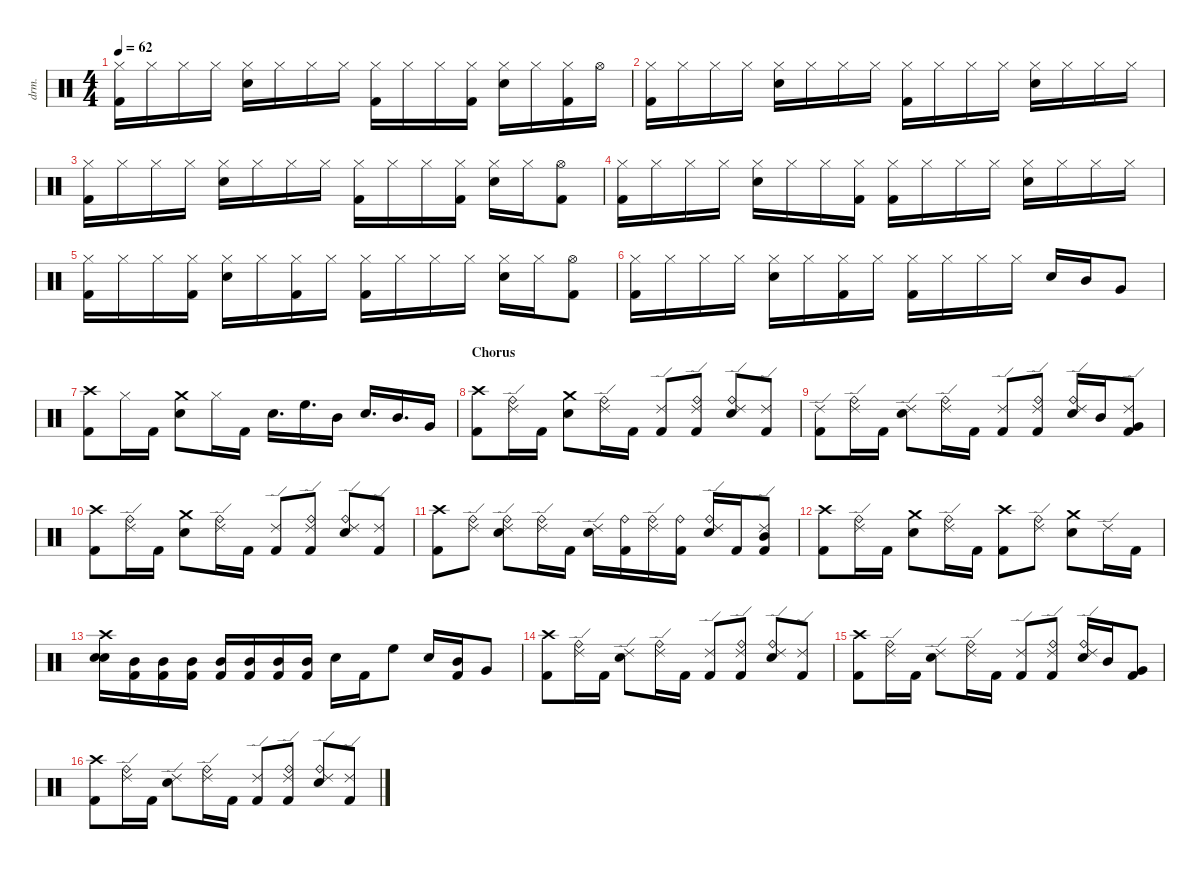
\defaultSystemsLayout 4
\hideDynamics
\bracketExtendMode nobrackets
\otherSystemsTrackNameOrientation horizontal
\track ("Drums" "drm.") {instrument percussion}
\staff {score}
\articulation defaults
\ts (4 4)
\tempo 62
\clef neutral
\ks c
("Kick (hit) 2" "Hi-Hat (closed)").16{dy ff} "Hi-Hat (closed)".16 "Hi-Hat (closed)".16 "Hi-Hat (closed)".16 ("Snare (hit) 2" "Hi-Hat (closed)").16 "Hi-Hat (closed)".16 "Hi-Hat (closed)".16 "Hi-Hat (closed)".16 ("Kick (hit) 2" "Hi-Hat (closed)").16 "Hi-Hat (closed)".16 "Hi-Hat (closed)".16 ("Kick (hit) 2" "Hi-Hat (closed)").16 ("Snare (hit) 2" "Hi-Hat (closed)").16 "Hi-Hat (closed)".16 ("Kick (hit) 2" "Hi-Hat (closed)").16 "Hi-Hat (open)".16 |
("Kick (hit) 2" "Hi-Hat (closed)").16 "Hi-Hat (closed)".16 "Hi-Hat (closed)".16 "Hi-Hat (closed)".16 ("Snare (hit) 2" "Hi-Hat (closed)").16 "Hi-Hat (closed)".16 "Hi-Hat (closed)".16 "Hi-Hat (closed)".16 ("Kick (hit) 2" "Hi-Hat (closed)").16 "Hi-Hat (closed)".16 "Hi-Hat (closed)".16 "Hi-Hat (closed)".16 ("Snare (hit) 2" "Hi-Hat (closed)").16 "Hi-Hat (closed)".16 "Hi-Hat (closed)".16 "Hi-Hat (closed)".16 |
("Kick (hit) 2" "Hi-Hat (closed)").16 "Hi-Hat (closed)".16 "Hi-Hat (closed)".16 "Hi-Hat (closed)".16 ("Snare (hit) 2" "Hi-Hat (closed)").16 "Hi-Hat (closed)".16 "Hi-Hat (closed)".16 "Hi-Hat (closed)".16 ("Kick (hit) 2" "Hi-Hat (closed)").16 "Hi-Hat (closed)".16 "Hi-Hat (closed)".16 ("Kick (hit) 2" "Hi-Hat (closed)").16 ("Snare (hit) 2" "Hi-Hat (closed)").16 "Hi-Hat (closed)".16 ("Kick (hit) 2" "Hi-Hat (open)").8 |
("Kick (hit) 2" "Hi-Hat (closed)").16 "Hi-Hat (closed)".16 "Hi-Hat (closed)".16 "Hi-Hat (closed)".16 ("Snare (hit) 2" "Hi-Hat (closed)").16 "Hi-Hat (closed)".16 "Hi-Hat (closed)".16 ("Kick (hit) 2" "Hi-Hat (closed)").16 ("Kick (hit) 2" "Hi-Hat (closed)").16 "Hi-Hat (closed)".16 "Hi-Hat (closed)".16 "Hi-Hat (closed)".16 ("Snare (hit) 2" "Hi-Hat (closed)").16 "Hi-Hat (closed)".16 "Hi-Hat (closed)".16 "Hi-Hat (closed)".16 |
("Kick (hit) 2" "Hi-Hat (closed)").16 "Hi-Hat (closed)".16 "Hi-Hat (closed)".16 ("Kick (hit) 2" "Hi-Hat (closed)").16 ("Snare (hit) 2" "Hi-Hat (closed)").16 "Hi-Hat (closed)".16 ("Kick (hit) 2" "Hi-Hat (closed)").16 "Hi-Hat (closed)".16 ("Kick (hit) 2" "Hi-Hat (closed)").16 "Hi-Hat (closed)".16 "Hi-Hat (closed)".16 "Hi-Hat (closed)".16 ("Snare (hit) 2" "Hi-Hat (closed)").16 "Hi-Hat (closed)".16 ("Kick (hit) 2" "Hi-Hat (open)").8 |
("Kick (hit) 2" "Hi-Hat (closed)").16 "Hi-Hat (closed)".16 "Hi-Hat (closed)".16 "Hi-Hat (closed)".16 ("Snare (hit) 2" "Hi-Hat (closed)").16 "Hi-Hat (closed)".16 ("Kick (hit) 2" "Hi-Hat (closed)").16 "Hi-Hat (closed)".16 ("Kick (hit) 2" "Hi-Hat (closed)").16 "Hi-Hat (closed)".16 "Hi-Hat (closed)".16 "Hi-Hat (closed)".16 "Snare (hit) 2".16 "Mid Tom (hit)".16 "Very Low Tom (hit)".8 |
("Crash high (hit)" "Kick (hit) 2").8 "Hi-Hat (closed)".16 "Kick (hit) 2".16 ("Crash medium (hit)" "Snare (hit) 2").8 "Hi-Hat (closed)".16 "Kick (hit) 2".16 "Snare (hit) 2".16{d} "High Floor Tom (hit)".16{d} "Mid Tom (hit)".16 "Snare (hit) 2".16{d} "Mid Tom (hit)".16{d} "Very Low Tom (hit)".16 |
\section ("" "Chorus")
("Crash high (hit)" "Kick (hit) 2").8 ("Ride (bell)" "Ride (edge) 2").16 "Kick (hit) 2".16 ("Crash medium (hit)" "Snare (hit) 2").8 ("Ride (bell)" "Ride (edge) 2").16 "Kick (hit) 2".16 ("Ride (edge) 2" "Kick (hit) 2").8 ("Ride (bell)" "Ride (edge) 2" "Kick (hit) 2").8 ("Ride (bell)" "Ride (edge) 2" "Snare (hit) 2").8 ("Ride (edge) 2" "Kick (hit) 2").8 |
("Ride (edge) 2" "Kick (hit) 2").8 ("Ride (bell)" "Ride (edge) 2").16 "Kick (hit) 2".16 ("Ride (edge) 2" "Snare (hit) 2").8 ("Ride (bell)" "Ride (edge) 2").16 "Kick (hit) 2".16 ("Ride (edge) 2" "Kick (hit) 2").8 ("Ride (bell)" "Ride (edge) 2" "Kick (hit) 2").8 ("Ride (bell)" "Ride (edge) 2" "Snare (hit) 2").16 "Mid Tom (hit)".16 ("Ride (edge) 2" "Kick (hit) 2" "Very Low Tom (hit)").8 |
("Crash high (hit)" "Kick (hit) 2").8 ("Ride (bell)" "Ride (edge) 2").16 "Kick (hit) 2".16 ("Crash medium (hit)" "Snare (hit) 2").8 ("Ride (bell)" "Ride (edge) 2").16 "Kick (hit) 2".16 ("Ride (edge) 2" "Kick (hit) 2").8 ("Ride (bell)" "Ride (edge) 2" "Kick (hit) 2").8 ("Ride (bell)" "Ride (edge) 2" "Snare (hit) 2").8 ("Ride (edge) 2" "Kick (hit) 2").8 |
("Crash high (hit)" "Kick (hit) 2").8 ("Ride (bell)" "Ride (edge) 2").8 ("Ride (bell)" "Ride (edge) 2" "Snare (hit) 2").8 ("Ride (bell)" "Ride (edge) 2").16 "Kick (hit) 2".16 ("Ride (edge) 2" "Snare (hit) 2").16 ("Ride (bell)" "Kick (hit) 2").16 ("Ride (bell)" "Ride (edge) 2").16 ("Ride (bell)" "Kick (hit) 2").16 ("Ride (bell)" "Ride (edge) 2" "Snare (hit) 2").16 "Kick (hit) 2".16 ("Mid Tom (hit)" "Ride (edge) 2" "Kick (hit) 2").8 |
("Crash high (hit)" "Kick (hit) 2").8 ("Ride (bell)" "Ride (edge) 2").16 "Kick (hit) 2".16 ("Crash medium (hit)" "Snare (hit) 2").8 ("Ride (bell)" "Ride (edge) 2").16 "Kick (hit) 2".16 ("Crash high (hit)" "Kick (hit) 2").8 ("Ride (bell)" "Ride (edge) 2").8 ("Crash medium (hit)" "Snare (hit) 2").8 "Ride (edge) 2".16 "Kick (hit) 2".16 |
("Crash high (hit)" "Snare (hit) 2" "Snare (hit) 2").16 ("Mid Tom (hit)" "Kick (hit) 2").16 ("Mid Tom (hit)" "Kick (hit) 2").16 ("Mid Tom (hit)" "Kick (hit) 2").16 ("Mid Tom (hit)" "Kick (hit) 2").16 ("Mid Tom (hit)" "Kick (hit) 2").16 ("Mid Tom (hit)" "Kick (hit) 2").16 ("Mid Tom (hit)" "Kick (hit) 2").16 "Snare (hit) 2".16 "Kick (hit) 2".16 "High Floor Tom (hit)".8 "Snare (hit) 2".16 ("Mid Tom (hit)" "Kick (hit) 2").16 "Very Low Tom (hit)".8 |
("Crash high (hit)" "Kick (hit) 2").8 ("Ride (bell)" "Ride (edge) 2").16 "Kick (hit) 2".16 ("Ride (edge) 2" "Snare (hit) 2").8 ("Ride (bell)" "Ride (edge) 2").16 "Kick (hit) 2".16 ("Ride (edge) 2" "Kick (hit) 2").8 ("Ride (bell)" "Ride (edge) 2" "Kick (hit) 2").8 ("Ride (bell)" "Ride (edge) 2" "Snare (hit) 2").8 ("Ride (edge) 2" "Kick (hit) 2").8 |
("Crash high (hit)" "Kick (hit) 2").8 ("Ride (bell)" "Ride (edge) 2").16 "Kick (hit) 2".16 ("Ride (edge) 2" "Snare (hit) 2").8 ("Ride (bell)" "Ride (edge) 2").16 "Kick (hit) 2".16 ("Ride (edge) 2" "Kick (hit) 2").8 ("Ride (bell)" "Ride (edge) 2" "Kick (hit) 2").8 ("Ride (bell)" "Ride (edge) 2" "Snare (hit) 2").16 "Mid Tom (hit)".16 ("Kick (hit) 2" "Very Low Tom (hit)").8 |
("Crash high (hit)" "Kick (hit) 2").8 ("Ride (bell)" "Ride (edge) 2").16 "Kick (hit) 2".16 ("Ride (edge) 2" "Snare (hit) 2").8 ("Ride (bell)" "Ride (edge) 2").16 "Kick (hit) 2".16 ("Ride (edge) 2" "Kick (hit) 2").8 ("Ride (bell)" "Ride (edge) 2" "Kick (hit) 2").8 ("Ride (bell)" "Ride (edge) 2" "Snare (hit) 2").8 ("Ride (edge) 2" "Kick (hit) 2").8
